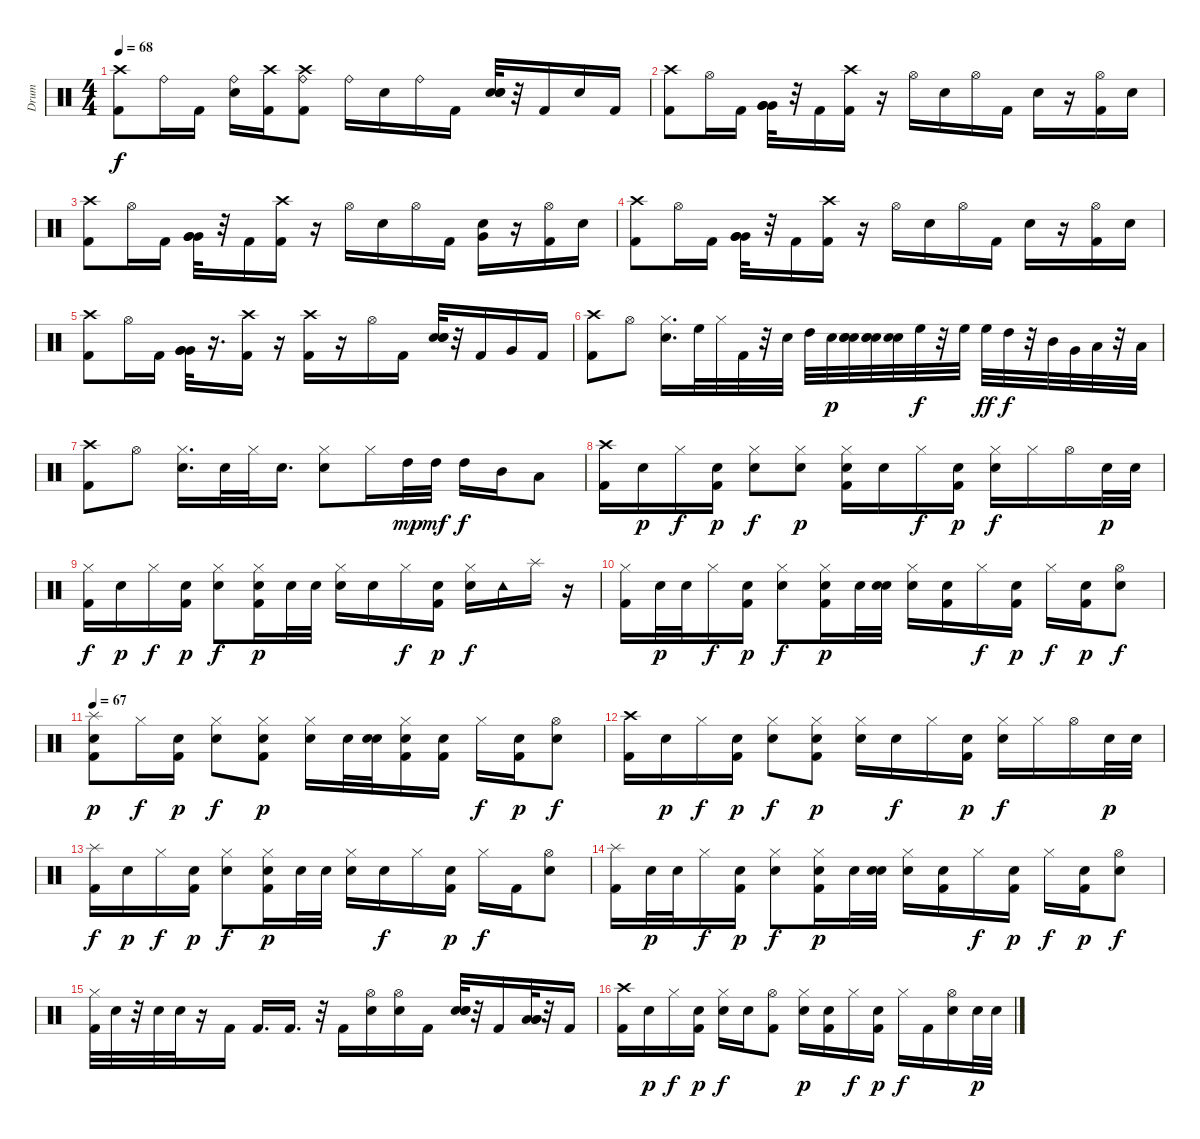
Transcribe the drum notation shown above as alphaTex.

\track ("Drum" "Drum") {instrument percussion}
\staff {score}
\articulation defaults
\ts (4 4)
\tempo 68
\clef neutral
\ks c
("Kick (hit) 2" "Crash high (hit)").8{dy f} "Ride (bell)".16 "Kick (hit) 2".16 ("Ride (bell)" "Electric Snare (hit)").16 ("Kick (hit) 2" "Crash high (hit)").16 ("Ride (bell)" "Crash high (hit)" "Kick (hit) 2").8 "Ride (bell)".16 "Electric Snare (hit)".16 "Ride (bell)".16 "Kick (hit) 2".16 ("Electric Snare (hit)" "Electric Snare (hit)" "Electric Snare (hit)").32 r.32 "Kick (hit) 2".16 "Electric Snare (hit)".16 "Kick (hit) 2".16 |
("Crash high (hit)" "Kick (hit) 2").8 "Hi-Hat (open)".16 "Kick (hit) 2".16 ("Very Low Tom (hit)" "Very Low Tom (hit)" "Very Low Tom (hit)").32 r.32 "Kick (hit) 2".16 ("Crash high (hit)" "Kick (hit) 2").16 r.16 "Hi-Hat (open)".16 "Electric Snare (hit)".16 "Hi-Hat (open)".16 "Kick (hit) 2".16 "Electric Snare (hit)".16 r.16 ("Kick (hit) 2" "Hi-Hat (open)").16 "Electric Snare (hit)".16 |
("Kick (hit) 2" "Crash high (hit)").8 "Hi-Hat (open)".16 "Kick (hit) 2".16 ("Very Low Tom (hit)" "Very Low Tom (hit)" "Very Low Tom (hit)").32 r.32 "Kick (hit) 2".16 ("Crash high (hit)" "Kick (hit) 2").16 r.16 "Hi-Hat (open)".16 "Electric Snare (hit)".16 "Hi-Hat (open)".16 "Kick (hit) 2".16 ("Electric Snare (hit)" "Very Low Tom (hit)").16 r.16 ("Kick (hit) 2" "Hi-Hat (open)").16 "Electric Snare (hit)".16 |
("Kick (hit) 2" "Crash high (hit)").8 "Hi-Hat (open)".16 "Kick (hit) 2".16 ("Very Low Tom (hit)" "Very Low Tom (hit)" "Very Low Tom (hit)").32 r.32 "Kick (hit) 2".16 ("Crash high (hit)" "Kick (hit) 2").16 r.16 "Hi-Hat (open)".16 "Electric Snare (hit)".16 "Hi-Hat (open)".16 "Kick (hit) 2".16 "Electric Snare (hit)".16 r.16 ("Kick (hit) 2" "Hi-Hat (open)").16 "Electric Snare (hit)".16 |
("Crash high (hit)" "Kick (hit) 2").8 "Hi-Hat (open)".16 "Kick (hit) 2".16 ("Very Low Tom (hit)" "Very Low Tom (hit)" "Very Low Tom (hit)").32 r.16{d} ("Crash high (hit)" "Kick (hit) 2").16 r.16 ("Crash high (hit)" "Kick (hit) 2").16 r.16 "Hi-Hat (open)".16 "Kick (hit) 2".16 ("Electric Snare (hit)" "Electric Snare (hit)" "Electric Snare (hit)").32 r.32 "Kick (hit) 2".16 "Very Low Tom (hit)".16 "Kick (hit) 2".16 |
("Crash high (hit)" "Kick (hit) 2").8 "Hi-Hat (open)".8 ("Electric Snare (hit)" "Hi-Hat (closed)").16{d} "High Floor Tom (hit)".32 "Hi-Hat (closed)".32 "Kick (hit) 2".32 r.32 "Electric Snare (hit)".32 "High Tom (hit)".32 "Electric Snare (hit)".32{dy p} ("Electric Snare (hit)" "Electric Snare (hit)" "Electric Snare (hit)").32 ("Electric Snare (hit)" "Electric Snare (hit)" "Electric Snare (hit)").32 ("Electric Snare (hit)" "Electric Snare (hit)").32 "High Floor Tom (hit)".32{dy f} r.32 "High Floor Tom (hit)".32 "High Floor Tom (hit)".32{dy ff} "High Tom (hit)".32{dy f} r.32 "Mid Tom (hit)".32 "Very Low Tom (hit)".32 "Low Floor Tom (hit)".32 r.32 "Low Floor Tom (hit)".32 |
("Crash high (hit)" "Kick (hit) 2").8 "Hi-Hat (open)".8 ("Electric Snare (hit)" "Hi-Hat (closed)").16{d} "Electric Snare (hit)".32 "Hi-Hat (closed)".32 "Electric Snare (hit)".16{d} ("Electric Snare (hit)" "Hi-Hat (closed)").8 "Hi-Hat (closed)".16 "High Tom (hit)".32{dy mp} "High Tom (hit)".32{dy mf} "High Tom (hit)".16{dy f} "Mid Tom (hit)".16 "Low Tom (hit)".8 |
("Crash high (hit)" "Kick (hit) 2").16{volume 8} "Electric Snare (hit)".16{dy p} "Hi-Hat (closed)".16{dy f} ("Kick (hit) 2" "Electric Snare (hit)").16{dy p} ("Hi-Hat (closed)" "Electric Snare (hit)").8{dy f} ("Hi-Hat (closed)" "Electric Snare (hit)").8{dy p} ("Hi-Hat (closed)" "Kick (hit) 2" "Electric Snare (hit)").16 "Electric Snare (hit)".16 "Hi-Hat (closed)".16{dy f} ("Kick (hit) 2" "Electric Snare (hit)").16{dy p} ("Electric Snare (hit)" "Hi-Hat (closed)").16{dy f} "Hi-Hat (closed)".16 "Hi-Hat (open)".16 "Electric Snare (hit)".32{dy p} "Electric Snare (hit)".32 |
("Kick (hit) 2" "Hi-Hat (closed)").16{dy f} "Electric Snare (hit)".16{dy p} "Hi-Hat (closed)".16{dy f} ("Kick (hit) 2" "Electric Snare (hit)").16{dy p} ("Hi-Hat (closed)" "Electric Snare (hit)").8{dy f} ("Hi-Hat (closed)" "Kick (hit) 2" "Electric Snare (hit)").16{dy p} "Electric Snare (hit)".32 "Electric Snare (hit)".32 ("Hi-Hat (closed)" "Electric Snare (hit)").16 "Electric Snare (hit)".16 "Hi-Hat (closed)".16{dy f} ("Kick (hit) 2" "Electric Snare (hit)").16{dy p} ("Electric Snare (hit)" "Hi-Hat (closed)").16{dy f} "Tambourine (hit)".16 "Splash (hit)".16 r.16 |
("Hi-Hat (closed)" "Kick (hit) 2").16 "Electric Snare (hit)".32{dy p} "Electric Snare (hit)".32 "Hi-Hat (closed)".16{dy f} ("Kick (hit) 2" "Electric Snare (hit)").16{dy p} ("Hi-Hat (closed)" "Electric Snare (hit)").8{dy f} ("Hi-Hat (closed)" "Kick (hit) 2" "Electric Snare (hit)").16{dy p} "Electric Snare (hit)".32 ("Electric Snare (hit)" "Electric Snare (hit)").32 ("Hi-Hat (closed)" "Electric Snare (hit)").16 ("Kick (hit) 2" "Electric Snare (hit)").16 "Hi-Hat (closed)".16{dy f} ("Kick (hit) 2" "Electric Snare (hit)").16{dy p} "Hi-Hat (closed)".16{dy f} ("Kick (hit) 2" "Electric Snare (hit)").16{dy p} ("Hi-Hat (open)" "Electric Snare (hit)").8{dy f} |
\tempo 67
("Kick (hit) 2" "Electric Snare (hit)" "Splash (hit)").8{dy p} "Hi-Hat (closed)".16{dy f} ("Kick (hit) 2" "Electric Snare (hit)").16{dy p} ("Hi-Hat (closed)" "Electric Snare (hit)").8{dy f} ("Hi-Hat (closed)" "Kick (hit) 2" "Electric Snare (hit)").8{dy p} ("Hi-Hat (closed)" "Electric Snare (hit)").16 "Electric Snare (hit)".32 ("Electric Snare (hit)" "Electric Snare (hit)").32 ("Hi-Hat (closed)" "Kick (hit) 2" "Electric Snare (hit)").16 ("Kick (hit) 2" "Electric Snare (hit)").16 "Hi-Hat (closed)".16{dy f} ("Kick (hit) 2" "Electric Snare (hit)").16{dy p} ("Hi-Hat (open)" "Electric Snare (hit)").8{dy f} |
("Kick (hit) 2" "Crash high (hit)").16 "Electric Snare (hit)".16{dy p} "Hi-Hat (closed)".16{dy f} ("Kick (hit) 2" "Electric Snare (hit)").16{dy p} ("Hi-Hat (closed)" "Electric Snare (hit)").8{dy f} ("Hi-Hat (closed)" "Electric Snare (hit)" "Kick (hit) 2").8{dy p} ("Hi-Hat (closed)" "Electric Snare (hit)").16 "Electric Snare (hit)".16{dy f} "Hi-Hat (closed)".16 ("Kick (hit) 2" "Electric Snare (hit)").16{dy p} ("Electric Snare (hit)" "Hi-Hat (closed)").16{dy f} "Hi-Hat (closed)".16 "Hi-Hat (open)".16 "Electric Snare (hit)".32{dy p} "Electric Snare (hit)".32 |
("Kick (hit) 2" "Splash (hit)").16{dy f} "Electric Snare (hit)".16{dy p} "Hi-Hat (closed)".16{dy f} ("Kick (hit) 2" "Electric Snare (hit)").16{dy p} ("Hi-Hat (closed)" "Electric Snare (hit)").8{dy f} ("Hi-Hat (closed)" "Kick (hit) 2" "Electric Snare (hit)").16{dy p} "Electric Snare (hit)".32 "Electric Snare (hit)".32 ("Hi-Hat (closed)" "Electric Snare (hit)").16 "Electric Snare (hit)".16{dy f} "Hi-Hat (closed)".16 ("Kick (hit) 2" "Electric Snare (hit)").16{dy p} "Hi-Hat (closed)".16{dy f} "Kick (hit) 2".16 ("Electric Snare (hit)" "Hi-Hat (open)").8 |
("Kick (hit) 2" "Splash (hit)").16 "Electric Snare (hit)".32{dy p} "Electric Snare (hit)".32 "Hi-Hat (closed)".16{dy f} ("Kick (hit) 2" "Electric Snare (hit)").16{dy p} ("Hi-Hat (closed)" "Electric Snare (hit)").8{dy f} ("Hi-Hat (closed)" "Kick (hit) 2" "Electric Snare (hit)").16{dy p} "Electric Snare (hit)".32 ("Electric Snare (hit)" "Electric Snare (hit)").32 ("Hi-Hat (closed)" "Electric Snare (hit)").16 ("Kick (hit) 2" "Electric Snare (hit)").16 "Hi-Hat (closed)".16{dy f} ("Kick (hit) 2" "Electric Snare (hit)").16{dy p} "Hi-Hat (closed)".16{dy f} ("Kick (hit) 2" "Electric Snare (hit)").16{dy p} ("Hi-Hat (open)" "Electric Snare (hit)").8{dy f} |
("Kick (hit) 2" "Hi-Hat (closed)").32 "Electric Snare (hit)".32 r.32 "Electric Snare (hit)".32 "Electric Snare (hit)".32 r.16 "Kick (hit) 2".16 "Kick (hit) 2".16{d} "Kick (hit) 2".16{d} r.32 "Kick (hit) 2".16 ("Electric Snare (hit)" "Hi-Hat (open)").16 ("Electric Snare (hit)" "Hi-Hat (open)").16 "Kick (hit) 2".16 ("Electric Snare (hit)" "Electric Snare (hit)" "Electric Snare (hit)").32 r.32 "Kick (hit) 2".16 ("Low Tom (hit)" "Low Tom (hit)" "Low Tom (hit)").32 r.32 "Kick (hit) 2".16 |
("Crash high (hit)" "Kick (hit) 2").16 "Electric Snare (hit)".16{dy p} "Hi-Hat (closed)".16{dy f} ("Kick (hit) 2" "Electric Snare (hit)").16{dy p} ("Hi-Hat (closed)" "Electric Snare (hit)").16{dy f} "Electric Snare (hit)".16 ("Hi-Hat (open)" "Kick (hit) 2").8 ("Hi-Hat (closed)" "Electric Snare (hit)").16{dy p} ("Electric Snare (hit)" "Kick (hit) 2").16 "Hi-Hat (closed)".16{dy f} ("Kick (hit) 2" "Electric Snare (hit)").16{dy p} "Hi-Hat (closed)".16{dy f} "Kick (hit) 2".16 ("Hi-Hat (open)" "Electric Snare (hit)").16 "Electric Snare (hit)".32{dy p} "Electric Snare (hit)".32
